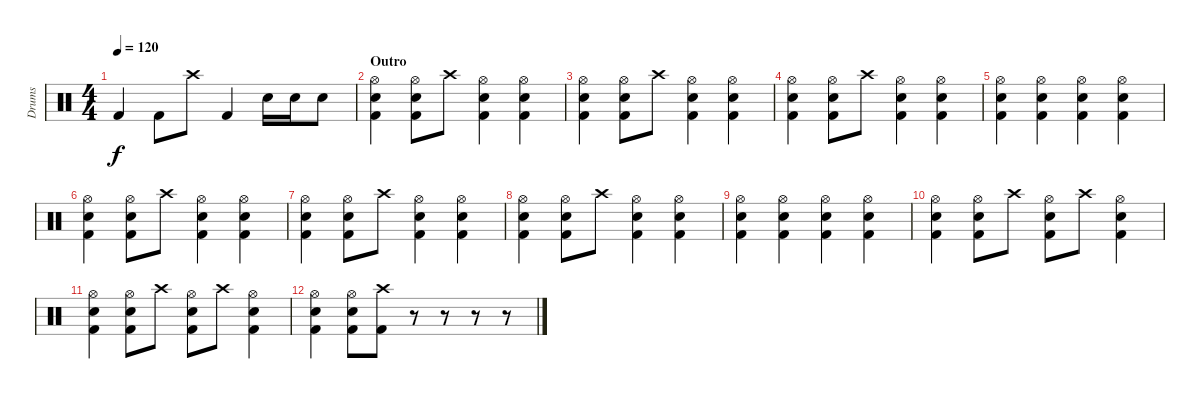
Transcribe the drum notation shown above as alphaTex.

\track ("Drums" "Drums") {instrument percussion}
\staff {score}
\articulation defaults
\ts (4 4)
\tempo 120
\clef neutral
\ks c "Kick (hit) 2".4{dy f} "Kick (hit) 2".8 "Crash high (hit)".8 "Kick (hit) 2".4 "Snare (hit) 2".16 "Snare (hit) 2".16 "Snare (hit) 2".8
|
\section ("" "Outro")
("Hi-Hat (open)" "Snare (hit) 2" "Kick (hit) 2").4 ("Hi-Hat (open)" "Snare (hit) 2" "Kick (hit) 2").8 "Crash high (hit)".8 ("Hi-Hat (open)" "Snare (hit) 2" "Kick (hit) 2").4 ("Hi-Hat (open)" "Snare (hit) 2" "Kick (hit) 2").4 |
("Hi-Hat (open)" "Snare (hit) 2" "Kick (hit) 2").4 ("Hi-Hat (open)" "Snare (hit) 2" "Kick (hit) 2").8 "Crash high (hit)".8 ("Hi-Hat (open)" "Snare (hit) 2" "Kick (hit) 2").4 ("Hi-Hat (open)" "Snare (hit) 2" "Kick (hit) 2").4 |
("Hi-Hat (open)" "Snare (hit) 2" "Kick (hit) 2").4 ("Hi-Hat (open)" "Snare (hit) 2" "Kick (hit) 2").8 "Crash high (hit)".8 ("Hi-Hat (open)" "Snare (hit) 2" "Kick (hit) 2").4 ("Hi-Hat (open)" "Snare (hit) 2" "Kick (hit) 2").4 |
("Hi-Hat (open)" "Snare (hit) 2" "Kick (hit) 2").4 ("Hi-Hat (open)" "Snare (hit) 2" "Kick (hit) 2").4 ("Hi-Hat (open)" "Snare (hit) 2" "Kick (hit) 2").4 ("Hi-Hat (open)" "Snare (hit) 2" "Kick (hit) 2").4 |
("Hi-Hat (open)" "Snare (hit) 2" "Kick (hit) 2").4 ("Hi-Hat (open)" "Snare (hit) 2" "Kick (hit) 2").8 "Crash high (hit)".8 ("Hi-Hat (open)" "Snare (hit) 2" "Kick (hit) 2").4 ("Hi-Hat (open)" "Snare (hit) 2" "Kick (hit) 2").4 |
("Hi-Hat (open)" "Snare (hit) 2" "Kick (hit) 2").4 ("Hi-Hat (open)" "Snare (hit) 2" "Kick (hit) 2").8 "Crash high (hit)".8 ("Hi-Hat (open)" "Snare (hit) 2" "Kick (hit) 2").4 ("Hi-Hat (open)" "Snare (hit) 2" "Kick (hit) 2").4 |
("Hi-Hat (open)" "Snare (hit) 2" "Kick (hit) 2").4 ("Hi-Hat (open)" "Snare (hit) 2" "Kick (hit) 2").8 "Crash high (hit)".8 ("Hi-Hat (open)" "Snare (hit) 2" "Kick (hit) 2").4 ("Hi-Hat (open)" "Snare (hit) 2" "Kick (hit) 2").4 |
("Hi-Hat (open)" "Snare (hit) 2" "Kick (hit) 2").4 ("Hi-Hat (open)" "Snare (hit) 2" "Kick (hit) 2").4 ("Hi-Hat (open)" "Snare (hit) 2" "Kick (hit) 2").4 ("Hi-Hat (open)" "Snare (hit) 2" "Kick (hit) 2").4 |
("Hi-Hat (open)" "Snare (hit) 2" "Kick (hit) 2").4 ("Hi-Hat (open)" "Snare (hit) 2" "Kick (hit) 2").8 "Crash high (hit)".8 ("Hi-Hat (open)" "Snare (hit) 2" "Kick (hit) 2").8 "Crash high (hit)".8 ("Hi-Hat (open)" "Snare (hit) 2" "Kick (hit) 2").4 |
("Hi-Hat (open)" "Snare (hit) 2" "Kick (hit) 2").4 ("Hi-Hat (open)" "Snare (hit) 2" "Kick (hit) 2").8 "Crash high (hit)".8 ("Hi-Hat (open)" "Snare (hit) 2" "Kick (hit) 2").8 "Crash high (hit)".8 ("Hi-Hat (open)" "Snare (hit) 2" "Kick (hit) 2").4 |
("Hi-Hat (open)" "Snare (hit) 2" "Kick (hit) 2").4 ("Hi-Hat (open)" "Snare (hit) 2" "Kick (hit) 2").8 ("Crash high (hit)" "Kick (hit) 2").8 r.8 r.8 r.8 r.8
